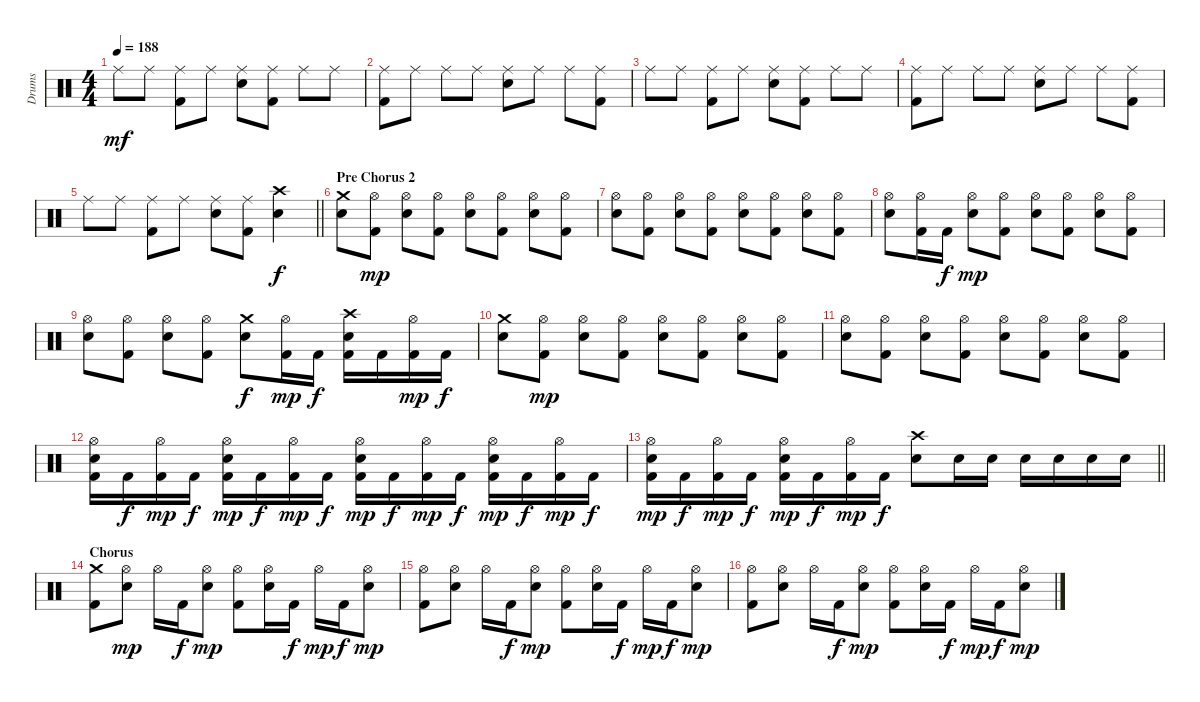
\track ("Drums" "Drums") {instrument percussion}
\staff {score}
\articulation defaults
\ts (4 4)
\tempo 188
\clef neutral
\ks c "Ride (middle)".8{dy mf} "Ride (middle)".8
("Ride (middle)" "Kick (hit) 2").8 "Ride (middle)".8 ("Ride (middle)" "Snare (hit) 2").8 ("Ride (middle)" "Kick (hit) 2").8 "Ride (middle)".8 "Ride (middle)".8 |
("Ride (middle)" "Kick (hit) 2").8 "Ride (middle)".8 "Ride (middle)".8 "Ride (middle)".8 ("Ride (middle)" "Snare (hit) 2").8 "Ride (middle)".8 "Ride (middle)".8 ("Ride (middle)" "Kick (hit) 2").8 |
"Ride (middle)".8 "Ride (middle)".8 ("Ride (middle)" "Kick (hit) 2").8 "Ride (middle)".8 ("Ride (middle)" "Snare (hit) 2").8 ("Ride (middle)" "Kick (hit) 2").8 "Ride (middle)".8 "Ride (middle)".8 |
("Ride (middle)" "Kick (hit) 2").8 "Ride (middle)".8 "Ride (middle)".8 "Ride (middle)".8 ("Ride (middle)" "Snare (hit) 2").8 "Ride (middle)".8 "Ride (middle)".8 ("Ride (middle)" "Kick (hit) 2").8 |
\barLineRight lightlight "Ride (middle)".8 "Ride (middle)".8
("Ride (middle)" "Kick (hit) 2").8 "Ride (middle)".8 ("Ride (middle)" "Snare (hit) 2").8 ("Ride (middle)" "Kick (hit) 2").8 ("Crash high (hit)" "Snare (hit) 2").4{dy f} |
\section ("" "Pre Chorus 2")
("Crash medium (hit)" "Snare (hit) 2").8 ("Hi-Hat (open)" "Kick (hit) 2").8{dy mp} ("Hi-Hat (open)" "Snare (hit) 2").8 ("Hi-Hat (open)" "Kick (hit) 2").8 ("Hi-Hat (open)" "Snare (hit) 2").8 ("Hi-Hat (open)" "Kick (hit) 2").8 ("Hi-Hat (open)" "Snare (hit) 2").8 ("Hi-Hat (open)" "Kick (hit) 2").8 |
("Hi-Hat (open)" "Snare (hit) 2").8 ("Hi-Hat (open)" "Kick (hit) 2").8 ("Hi-Hat (open)" "Snare (hit) 2").8 ("Hi-Hat (open)" "Kick (hit) 2").8 ("Hi-Hat (open)" "Snare (hit) 2").8 ("Hi-Hat (open)" "Kick (hit) 2").8 ("Hi-Hat (open)" "Snare (hit) 2").8 ("Hi-Hat (open)" "Kick (hit) 2").8 |
("Hi-Hat (open)" "Snare (hit) 2").8 ("Hi-Hat (open)" "Kick (hit) 2").16 "Kick (hit) 2".16{dy f} ("Hi-Hat (open)" "Snare (hit) 2").8{dy mp} ("Hi-Hat (open)" "Kick (hit) 2").8 ("Hi-Hat (open)" "Snare (hit) 2").8 ("Hi-Hat (open)" "Kick (hit) 2").8 ("Hi-Hat (open)" "Snare (hit) 2").8 ("Hi-Hat (open)" "Kick (hit) 2").8 |
("Hi-Hat (open)" "Snare (hit) 2").8 ("Hi-Hat (open)" "Kick (hit) 2").8 ("Hi-Hat (open)" "Snare (hit) 2").8 ("Hi-Hat (open)" "Kick (hit) 2").8 ("Crash medium (hit)" "Snare (hit) 2").8{dy f} ("Hi-Hat (open)" "Kick (hit) 2").16{dy mp} "Kick (hit) 2".16{dy f} ("Crash high (hit)" "Snare (hit) 2" "Kick (hit) 2").16 "Kick (hit) 2".16 ("Hi-Hat (open)" "Kick (hit) 2").16{dy mp} "Kick (hit) 2".16{dy f} |
("Crash medium (hit)" "Snare (hit) 2").8 ("Hi-Hat (open)" "Kick (hit) 2").8{dy mp} ("Hi-Hat (open)" "Snare (hit) 2").8 ("Hi-Hat (open)" "Kick (hit) 2").8 ("Hi-Hat (open)" "Snare (hit) 2").8 ("Hi-Hat (open)" "Kick (hit) 2").8 ("Hi-Hat (open)" "Snare (hit) 2").8 ("Hi-Hat (open)" "Kick (hit) 2").8 |
("Hi-Hat (open)" "Snare (hit) 2").8 ("Hi-Hat (open)" "Kick (hit) 2").8 ("Hi-Hat (open)" "Snare (hit) 2").8 ("Hi-Hat (open)" "Kick (hit) 2").8 ("Hi-Hat (open)" "Snare (hit) 2").8 ("Hi-Hat (open)" "Kick (hit) 2").8 ("Hi-Hat (open)" "Snare (hit) 2").8 ("Hi-Hat (open)" "Kick (hit) 2").8 |
("Hi-Hat (open)" "Snare (hit) 2" "Kick (hit) 2").16 "Kick (hit) 2".16{dy f} ("Hi-Hat (open)" "Kick (hit) 2").16{dy mp} "Kick (hit) 2".16{dy f} ("Hi-Hat (open)" "Snare (hit) 2" "Kick (hit) 2").16{dy mp} "Kick (hit) 2".16{dy f} ("Hi-Hat (open)" "Kick (hit) 2").16{dy mp} "Kick (hit) 2".16{dy f} ("Hi-Hat (open)" "Snare (hit) 2" "Kick (hit) 2").16{dy mp} "Kick (hit) 2".16{dy f} ("Hi-Hat (open)" "Kick (hit) 2").16{dy mp} "Kick (hit) 2".16{dy f} ("Hi-Hat (open)" "Snare (hit) 2" "Kick (hit) 2").16{dy mp} "Kick (hit) 2".16{dy f} ("Hi-Hat (open)" "Kick (hit) 2").16{dy mp} "Kick (hit) 2".16{dy f} |
\barLineRight lightlight
("Hi-Hat (open)" "Snare (hit) 2" "Kick (hit) 2").16{dy mp} "Kick (hit) 2".16{dy f} ("Hi-Hat (open)" "Kick (hit) 2").16{dy mp} "Kick (hit) 2".16{dy f} ("Hi-Hat (open)" "Snare (hit) 2" "Kick (hit) 2").16{dy mp} "Kick (hit) 2".16{dy f} ("Hi-Hat (open)" "Kick (hit) 2").16{dy mp} "Kick (hit) 2".16{dy f} ("Crash high (hit)" "Snare (hit) 2").8 "Snare (hit) 2".16 "Snare (hit) 2".16 "Snare (hit) 2".16 "Snare (hit) 2".16 "Snare (hit) 2".16 "Snare (hit) 2".16 |
\section ("" "Chorus")
("Crash medium (hit)" "Kick (hit) 2").8 ("Hi-Hat (open)" "Snare (hit) 2").8{dy mp} "Hi-Hat (open)".16 "Kick (hit) 2".16{dy f} ("Hi-Hat (open)" "Snare (hit) 2").8{dy mp} ("Hi-Hat (open)" "Kick (hit) 2").8 ("Hi-Hat (open)" "Snare (hit) 2").16 "Kick (hit) 2".16{dy f} "Hi-Hat (open)".16{dy mp} "Kick (hit) 2".16{dy f} ("Hi-Hat (open)" "Snare (hit) 2").8{dy mp} |
("Hi-Hat (open)" "Kick (hit) 2").8 ("Hi-Hat (open)" "Snare (hit) 2").8 "Hi-Hat (open)".16 "Kick (hit) 2".16{dy f} ("Hi-Hat (open)" "Snare (hit) 2").8{dy mp} ("Hi-Hat (open)" "Kick (hit) 2").8 ("Hi-Hat (open)" "Snare (hit) 2").16 "Kick (hit) 2".16{dy f} "Hi-Hat (open)".16{dy mp} "Kick (hit) 2".16{dy f} ("Hi-Hat (open)" "Snare (hit) 2").8{dy mp} |
("Hi-Hat (open)" "Kick (hit) 2").8 ("Hi-Hat (open)" "Snare (hit) 2").8 "Hi-Hat (open)".16 "Kick (hit) 2".16{dy f} ("Hi-Hat (open)" "Snare (hit) 2").8{dy mp} ("Hi-Hat (open)" "Kick (hit) 2").8 ("Hi-Hat (open)" "Snare (hit) 2").16 "Kick (hit) 2".16{dy f} "Hi-Hat (open)".16{dy mp} "Kick (hit) 2".16{dy f} ("Hi-Hat (open)" "Snare (hit) 2").8{dy mp}
